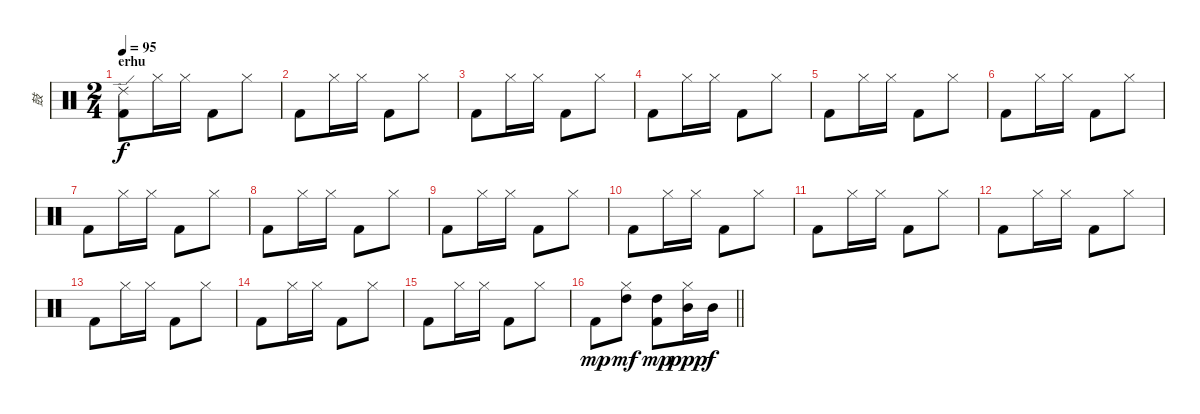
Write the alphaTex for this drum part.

\track ("鼓" "鼓") {instrument percussion}
\staff {score}
\articulation defaults
\ts (2 4)
\section ("" "erhu")
\tempo 95
\clef neutral
\ks c
("Kick (hit) 2" "Ride (edge) 2").8{dy f} "Hi-Hat (closed)".16 "Hi-Hat (closed)".16 "Kick (hit) 2".8 "Hi-Hat (closed)".8 |
"Kick (hit) 2".8 "Hi-Hat (closed)".16 "Hi-Hat (closed)".16 "Kick (hit) 2".8 "Hi-Hat (closed)".8 |
"Kick (hit) 2".8 "Hi-Hat (closed)".16 "Hi-Hat (closed)".16 "Kick (hit) 2".8 "Hi-Hat (closed)".8 |
"Kick (hit) 2".8 "Hi-Hat (closed)".16 "Hi-Hat (closed)".16 "Kick (hit) 2".8 "Hi-Hat (closed)".8 |
"Kick (hit) 2".8 "Hi-Hat (closed)".16 "Hi-Hat (closed)".16 "Kick (hit) 2".8 "Hi-Hat (closed)".8 |
"Kick (hit) 2".8 "Hi-Hat (closed)".16 "Hi-Hat (closed)".16 "Kick (hit) 2".8 "Hi-Hat (closed)".8 |
"Kick (hit) 2".8 "Hi-Hat (closed)".16 "Hi-Hat (closed)".16 "Kick (hit) 2".8 "Hi-Hat (closed)".8 |
"Kick (hit) 2".8 "Hi-Hat (closed)".16 "Hi-Hat (closed)".16 "Kick (hit) 2".8 "Hi-Hat (closed)".8 |
"Kick (hit) 2".8 "Hi-Hat (closed)".16 "Hi-Hat (closed)".16 "Kick (hit) 2".8 "Hi-Hat (closed)".8 |
"Kick (hit) 2".8 "Hi-Hat (closed)".16 "Hi-Hat (closed)".16 "Kick (hit) 2".8 "Hi-Hat (closed)".8 |
"Kick (hit) 2".8 "Hi-Hat (closed)".16 "Hi-Hat (closed)".16 "Kick (hit) 2".8 "Hi-Hat (closed)".8 |
"Kick (hit) 2".8 "Hi-Hat (closed)".16 "Hi-Hat (closed)".16 "Kick (hit) 2".8 "Hi-Hat (closed)".8 |
"Kick (hit) 2".8 "Hi-Hat (closed)".16 "Hi-Hat (closed)".16 "Kick (hit) 2".8 "Hi-Hat (closed)".8 |
"Kick (hit) 2".8 "Hi-Hat (closed)".16 "Hi-Hat (closed)".16 "Kick (hit) 2".8 "Hi-Hat (closed)".8 |
"Kick (hit) 2".8 "Hi-Hat (closed)".16 "Hi-Hat (closed)".16 "Kick (hit) 2".8 "Hi-Hat (closed)".8 |
\barLineRight lightlight "Kick (hit) 2".8{dy mp}
("High Tom (hit)" "Hi-Hat (closed)").8{dy mf} ("Kick (hit) 2" "High Tom (hit)").8{dy mp} ("Mid Tom (hit)" "Hi-Hat (closed)").16{dy ppp} "Mid Tom (hit)".16{dy f}
